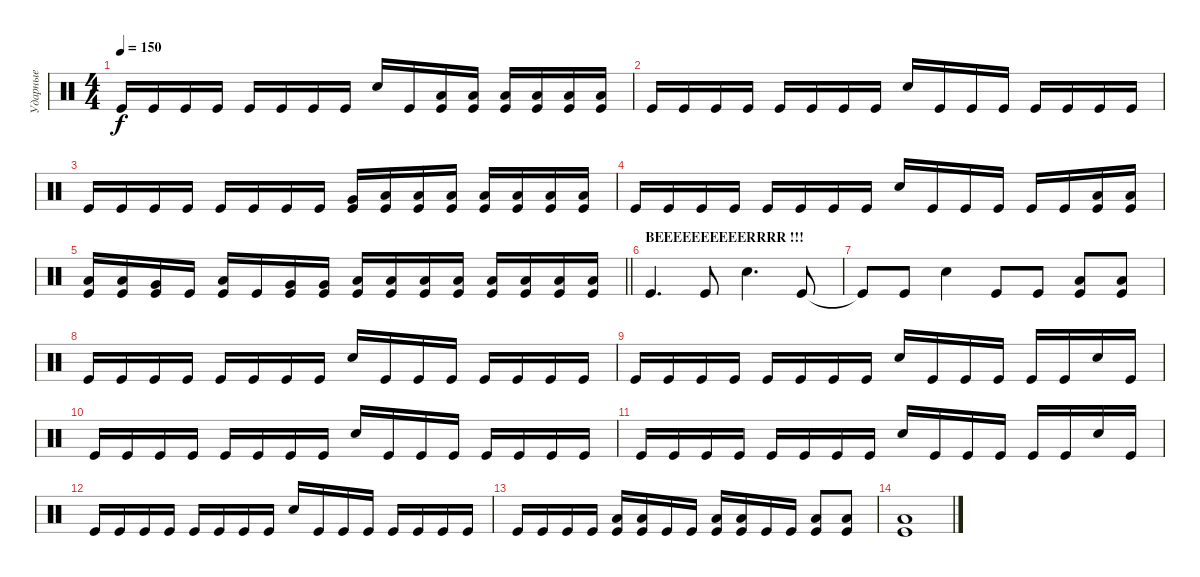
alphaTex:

\track ("Ударные" "Ударные") {instrument percussion}
\staff {score}
\articulation defaults
\ts (4 4)
\tempo 150
\clef neutral
\ks c "Kick (hit)".16{dy f} "Kick (hit)".16 "Kick (hit)".16 "Kick (hit)".16 "Kick (hit)".16 "Kick (hit)".16 "Kick (hit)".16 "Kick (hit)".16 "Snare (hit) 2".16 "Kick (hit)".16
("Kick (hit)" "Low Floor Tom (hit)").16 ("Kick (hit)" "Low Floor Tom (hit)").16 ("Kick (hit)" "Low Floor Tom (hit)").16 ("Kick (hit)" "Low Floor Tom (hit)").16 ("Kick (hit)" "Low Floor Tom (hit)").16 ("Kick (hit)" "Low Floor Tom (hit)").16 |
"Kick (hit)".16 "Kick (hit)".16 "Kick (hit)".16 "Kick (hit)".16 "Kick (hit)".16 "Kick (hit)".16 "Kick (hit)".16 "Kick (hit)".16 "Snare (hit) 2".16 "Kick (hit)".16 "Kick (hit)".16 "Kick (hit)".16 "Kick (hit)".16 "Kick (hit)".16 "Kick (hit)".16 "Kick (hit)".16 |
"Kick (hit)".16 "Kick (hit)".16 "Kick (hit)".16 "Kick (hit)".16 "Kick (hit)".16 "Kick (hit)".16 "Kick (hit)".16 "Kick (hit)".16 ("Very Low Tom (hit)" "Kick (hit)").16 ("Kick (hit)" "Low Floor Tom (hit)").16 ("Kick (hit)" "Low Floor Tom (hit)").16 ("Kick (hit)" "Low Floor Tom (hit)").16 ("Kick (hit)" "Low Floor Tom (hit)").16 ("Kick (hit)" "Low Floor Tom (hit)").16 ("Low Tom (hit)" "Kick (hit)").16 ("Kick (hit)" "Low Floor Tom (hit)").16 |
"Kick (hit)".16 "Kick (hit)".16 "Kick (hit)".16 "Kick (hit)".16 "Kick (hit)".16 "Kick (hit)".16 "Kick (hit)".16 "Kick (hit)".16 "Snare (hit) 2".16 "Kick (hit)".16 "Kick (hit)".16 "Kick (hit)".16 "Kick (hit)".16 "Kick (hit)".16 ("Low Tom (hit)" "Kick (hit)").16 ("Low Tom (hit)" "Kick (hit)").16 |
\barLineRight lightlight
("Low Tom (hit)" "Kick (hit)").16 ("Low Tom (hit)" "Kick (hit)").16 ("Very Low Tom (hit)" "Kick (hit)").16 "Kick (hit)".16 ("Low Tom (hit)" "Kick (hit)").16 "Kick (hit)".16 ("Very Low Tom (hit)" "Kick (hit)").16 ("Very Low Tom (hit)" "Kick (hit)").16 ("Low Floor Tom (hit)" "Kick (hit)").16 ("Low Floor Tom (hit)" "Kick (hit)").16 ("Low Floor Tom (hit)" "Kick (hit)").16 ("Low Floor Tom (hit)" "Kick (hit)").16 ("Low Floor Tom (hit)" "Kick (hit)").16 ("Low Floor Tom (hit)" "Kick (hit)").16 ("Low Floor Tom (hit)" "Kick (hit)").16 ("Low Floor Tom (hit)" "Kick (hit)").16 |
\section ("" "BEEEEEEEEEERRRR !!!")
"Kick (hit)".4{d} "Kick (hit)".8 "Snare (hit) 2".4{d} "Kick (hit)".8 |
"Kick (hit)"{t}.8 "Kick (hit)".8 "Snare (hit) 2".4 "Kick (hit)".8 "Kick (hit)".8 ("Low Floor Tom (hit)" "Kick (hit)").8 ("Low Floor Tom (hit)" "Kick (hit)").8 |
"Kick (hit)".16 "Kick (hit)".16 "Kick (hit)".16 "Kick (hit)".16 "Kick (hit)".16 "Kick (hit)".16 "Kick (hit)".16 "Kick (hit)".16 "Snare (hit) 2".16 "Kick (hit)".16 "Kick (hit)".16 "Kick (hit)".16 "Kick (hit)".16 "Kick (hit)".16 "Kick (hit)".16 "Kick (hit)".16 |
"Kick (hit)".16 "Kick (hit)".16 "Kick (hit)".16 "Kick (hit)".16 "Kick (hit)".16 "Kick (hit)".16 "Kick (hit)".16 "Kick (hit)".16 "Snare (hit) 2".16 "Kick (hit)".16 "Kick (hit)".16 "Kick (hit)".16 "Kick (hit)".16 "Kick (hit)".16 "Snare (hit) 2".16 "Kick (hit)".16 |
"Kick (hit)".16 "Kick (hit)".16 "Kick (hit)".16 "Kick (hit)".16 "Kick (hit)".16 "Kick (hit)".16 "Kick (hit)".16 "Kick (hit)".16 "Snare (hit) 2".16 "Kick (hit)".16 "Kick (hit)".16 "Kick (hit)".16 "Kick (hit)".16 "Kick (hit)".16 "Kick (hit)".16 "Kick (hit)".16 |
"Kick (hit)".16 "Kick (hit)".16 "Kick (hit)".16 "Kick (hit)".16 "Kick (hit)".16 "Kick (hit)".16 "Kick (hit)".16 "Kick (hit)".16 "Snare (hit) 2".16 "Kick (hit)".16 "Kick (hit)".16 "Kick (hit)".16 "Kick (hit)".16 "Kick (hit)".16 "Snare (hit) 2".16 "Kick (hit)".16 |
"Kick (hit)".16 "Kick (hit)".16 "Kick (hit)".16 "Kick (hit)".16 "Kick (hit)".16 "Kick (hit)".16 "Kick (hit)".16 "Kick (hit)".16 "Snare (hit) 2".16 "Kick (hit)".16 "Kick (hit)".16 "Kick (hit)".16 "Kick (hit)".16 "Kick (hit)".16 "Kick (hit)".16 "Kick (hit)".16 |
"Kick (hit)".16 "Kick (hit)".16 "Kick (hit)".16 "Kick (hit)".16 ("Low Tom (hit)" "Kick (hit)").16 ("Low Tom (hit)" "Kick (hit)").16 "Kick (hit)".16 "Kick (hit)".16 ("Low Tom (hit)" "Kick (hit)").16 ("Low Tom (hit)" "Kick (hit)").16 "Kick (hit)".16 "Kick (hit)".16 ("Low Floor Tom (hit)" "Kick (hit)").8 ("Low Floor Tom (hit)" "Kick (hit)").8 |
("Low Floor Tom (hit)" "Kick (hit)").1
